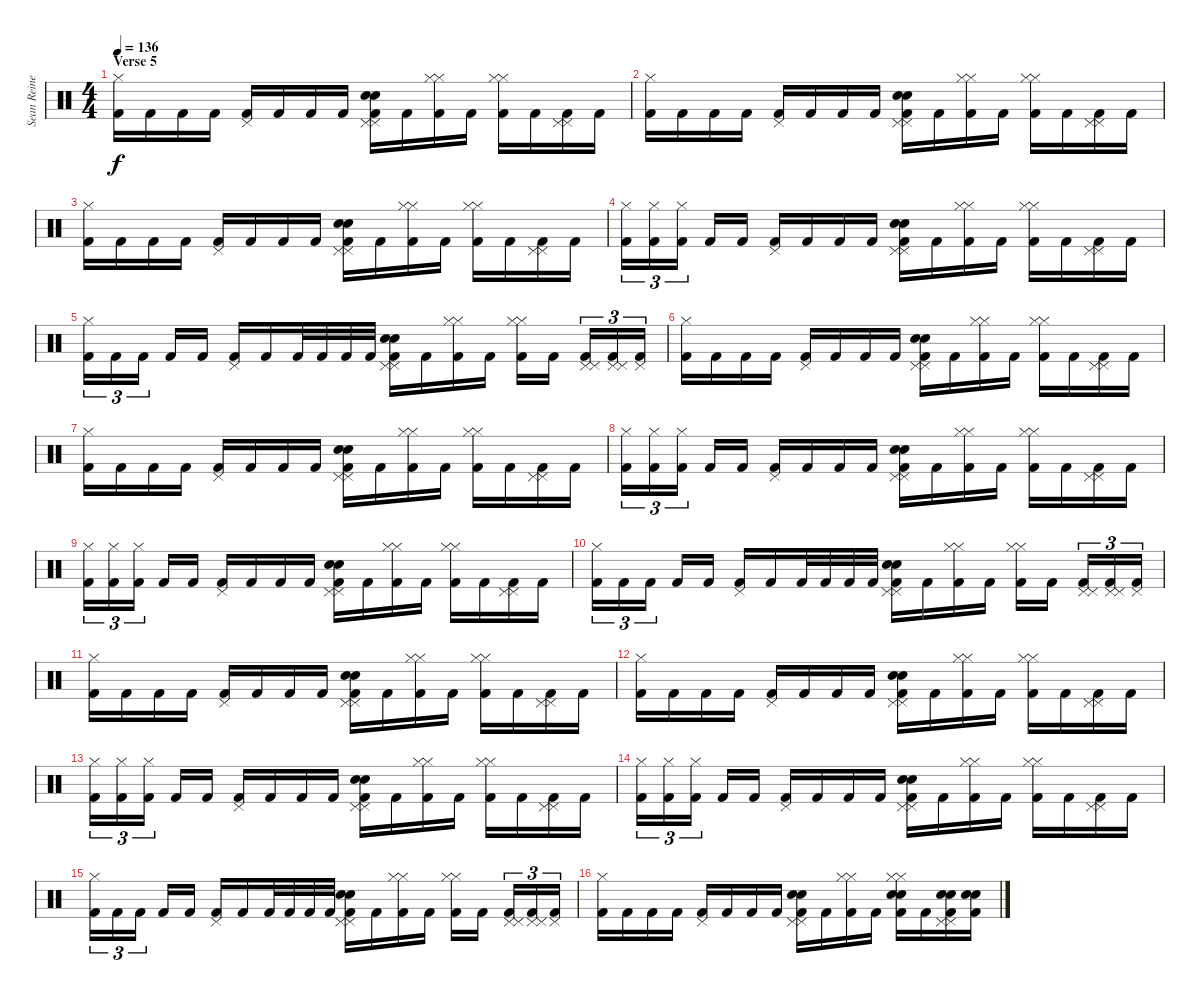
\track ("Sean Reinert" "Sean Reine") {instrument percussion}
\staff {score}
\articulation defaults
\ts (4 4)
\section ("" "Verse 5")
\tempo 136
\clef neutral
\ks c
("Hi-Hat (closed)" "Kick (hit) 2").16{dy f} "Kick (hit) 2".16 "Kick (hit) 2".16 "Kick (hit) 2".16 ("Pedal Hi-Hat (hit)" "Kick (hit) 2").16 "Kick (hit) 2".16 "Kick (hit) 2".16 "Kick (hit) 2".16 ("Electric Snare (hit)" "Snare (hit) 2" "Pedal Hi-Hat (hit)" "Pedal Hi-Hat (hit)" "Kick (hit) 2").16 "Kick (hit) 2".16 ("Hi-Hat (closed)" "Hi-Hat (closed)" "Kick (hit) 2").16 "Kick (hit) 2".16 ("Hi-Hat (closed)" "Hi-Hat (closed)" "Kick (hit) 2").16 "Kick (hit) 2".16 ("Pedal Hi-Hat (hit)" "Pedal Hi-Hat (hit)" "Kick (hit) 2").16 "Kick (hit) 2".16 |
("Hi-Hat (closed)" "Kick (hit) 2").16 "Kick (hit) 2".16 "Kick (hit) 2".16 "Kick (hit) 2".16 ("Pedal Hi-Hat (hit)" "Kick (hit) 2").16 "Kick (hit) 2".16 "Kick (hit) 2".16 "Kick (hit) 2".16 ("Electric Snare (hit)" "Snare (hit) 2" "Pedal Hi-Hat (hit)" "Pedal Hi-Hat (hit)" "Kick (hit) 2").16 "Kick (hit) 2".16 ("Hi-Hat (closed)" "Hi-Hat (closed)" "Kick (hit) 2").16 "Kick (hit) 2".16 ("Hi-Hat (closed)" "Hi-Hat (closed)" "Kick (hit) 2").16 "Kick (hit) 2".16 ("Pedal Hi-Hat (hit)" "Pedal Hi-Hat (hit)" "Kick (hit) 2").16 "Kick (hit) 2".16 |
("Hi-Hat (closed)" "Kick (hit) 2").16 "Kick (hit) 2".16 "Kick (hit) 2".16 "Kick (hit) 2".16 ("Pedal Hi-Hat (hit)" "Kick (hit) 2").16 "Kick (hit) 2".16 "Kick (hit) 2".16 "Kick (hit) 2".16 ("Electric Snare (hit)" "Snare (hit) 2" "Pedal Hi-Hat (hit)" "Pedal Hi-Hat (hit)" "Kick (hit) 2").16 "Kick (hit) 2".16 ("Hi-Hat (closed)" "Hi-Hat (closed)" "Kick (hit) 2").16 "Kick (hit) 2".16 ("Hi-Hat (closed)" "Hi-Hat (closed)" "Kick (hit) 2").16 "Kick (hit) 2".16 ("Pedal Hi-Hat (hit)" "Pedal Hi-Hat (hit)" "Kick (hit) 2").16 "Kick (hit) 2".16 |
("Hi-Hat (closed)" "Kick (hit) 2").16{tu (3 2)} ("Hi-Hat (closed)" "Kick (hit) 2").16{tu (3 2)} ("Hi-Hat (closed)" "Kick (hit) 2").16{tu (3 2)} "Kick (hit) 2".16 "Kick (hit) 2".16 ("Pedal Hi-Hat (hit)" "Kick (hit) 2").16 "Kick (hit) 2".16 "Kick (hit) 2".16 "Kick (hit) 2".16 ("Electric Snare (hit)" "Snare (hit) 2" "Pedal Hi-Hat (hit)" "Pedal Hi-Hat (hit)" "Kick (hit) 2").16 "Kick (hit) 2".16 ("Hi-Hat (closed)" "Hi-Hat (closed)" "Kick (hit) 2").16 "Kick (hit) 2".16 ("Hi-Hat (closed)" "Hi-Hat (closed)" "Kick (hit) 2").16 "Kick (hit) 2".16 ("Pedal Hi-Hat (hit)" "Pedal Hi-Hat (hit)" "Kick (hit) 2").16 "Kick (hit) 2".16 |
("Hi-Hat (closed)" "Kick (hit) 2").16{tu (3 2)} "Kick (hit) 2".16{tu (3 2)} "Kick (hit) 2".16{tu (3 2)} "Kick (hit) 2".16 "Kick (hit) 2".16 ("Pedal Hi-Hat (hit)" "Kick (hit) 2").16 "Kick (hit) 2".16 "Kick (hit) 2".32 "Kick (hit) 2".32 "Kick (hit) 2".32 "Kick (hit) 2".32 ("Electric Snare (hit)" "Snare (hit) 2" "Pedal Hi-Hat (hit)" "Pedal Hi-Hat (hit)" "Kick (hit) 2").16 "Kick (hit) 2".16 ("Hi-Hat (closed)" "Hi-Hat (closed)" "Kick (hit) 2").16 "Kick (hit) 2".16 ("Hi-Hat (closed)" "Hi-Hat (closed)" "Kick (hit) 2").16 "Kick (hit) 2".16 ("Pedal Hi-Hat (hit)" "Pedal Hi-Hat (hit)" "Kick (hit) 2").16{tu (3 2)} ("Pedal Hi-Hat (hit)" "Pedal Hi-Hat (hit)" "Kick (hit) 2").16{tu (3 2)} ("Pedal Hi-Hat (hit)" "Kick (hit) 2").16{tu (3 2)} |
("Hi-Hat (closed)" "Kick (hit) 2").16 "Kick (hit) 2".16 "Kick (hit) 2".16 "Kick (hit) 2".16 ("Pedal Hi-Hat (hit)" "Kick (hit) 2").16 "Kick (hit) 2".16 "Kick (hit) 2".16 "Kick (hit) 2".16 ("Electric Snare (hit)" "Snare (hit) 2" "Pedal Hi-Hat (hit)" "Pedal Hi-Hat (hit)" "Kick (hit) 2").16 "Kick (hit) 2".16 ("Hi-Hat (closed)" "Hi-Hat (closed)" "Kick (hit) 2").16 "Kick (hit) 2".16 ("Hi-Hat (closed)" "Hi-Hat (closed)" "Kick (hit) 2").16 "Kick (hit) 2".16 ("Pedal Hi-Hat (hit)" "Pedal Hi-Hat (hit)" "Kick (hit) 2").16 "Kick (hit) 2".16 |
("Hi-Hat (closed)" "Kick (hit) 2").16 "Kick (hit) 2".16 "Kick (hit) 2".16 "Kick (hit) 2".16 ("Pedal Hi-Hat (hit)" "Kick (hit) 2").16 "Kick (hit) 2".16 "Kick (hit) 2".16 "Kick (hit) 2".16 ("Electric Snare (hit)" "Snare (hit) 2" "Pedal Hi-Hat (hit)" "Pedal Hi-Hat (hit)" "Kick (hit) 2").16 "Kick (hit) 2".16 ("Hi-Hat (closed)" "Hi-Hat (closed)" "Kick (hit) 2").16 "Kick (hit) 2".16 ("Hi-Hat (closed)" "Hi-Hat (closed)" "Kick (hit) 2").16 "Kick (hit) 2".16 ("Pedal Hi-Hat (hit)" "Pedal Hi-Hat (hit)" "Kick (hit) 2").16 "Kick (hit) 2".16 |
("Hi-Hat (closed)" "Kick (hit) 2").16{tu (3 2)} ("Hi-Hat (closed)" "Kick (hit) 2").16{tu (3 2)} ("Hi-Hat (closed)" "Kick (hit) 2").16{tu (3 2)} "Kick (hit) 2".16 "Kick (hit) 2".16 ("Pedal Hi-Hat (hit)" "Kick (hit) 2").16 "Kick (hit) 2".16 "Kick (hit) 2".16 "Kick (hit) 2".16 ("Electric Snare (hit)" "Snare (hit) 2" "Pedal Hi-Hat (hit)" "Pedal Hi-Hat (hit)" "Kick (hit) 2").16 "Kick (hit) 2".16 ("Hi-Hat (closed)" "Hi-Hat (closed)" "Kick (hit) 2").16 "Kick (hit) 2".16 ("Hi-Hat (closed)" "Hi-Hat (closed)" "Kick (hit) 2").16 "Kick (hit) 2".16 ("Pedal Hi-Hat (hit)" "Pedal Hi-Hat (hit)" "Kick (hit) 2").16 "Kick (hit) 2".16 |
("Hi-Hat (closed)" "Kick (hit) 2").16{tu (3 2)} ("Hi-Hat (closed)" "Kick (hit) 2").16{tu (3 2)} ("Hi-Hat (closed)" "Kick (hit) 2").16{tu (3 2)} "Kick (hit) 2".16 "Kick (hit) 2".16 ("Pedal Hi-Hat (hit)" "Kick (hit) 2").16 "Kick (hit) 2".16 "Kick (hit) 2".16 "Kick (hit) 2".16 ("Electric Snare (hit)" "Snare (hit) 2" "Pedal Hi-Hat (hit)" "Pedal Hi-Hat (hit)" "Kick (hit) 2").16 "Kick (hit) 2".16 ("Hi-Hat (closed)" "Hi-Hat (closed)" "Kick (hit) 2").16 "Kick (hit) 2".16 ("Hi-Hat (closed)" "Hi-Hat (closed)" "Kick (hit) 2").16 "Kick (hit) 2".16 ("Pedal Hi-Hat (hit)" "Pedal Hi-Hat (hit)" "Kick (hit) 2").16 "Kick (hit) 2".16 |
("Hi-Hat (closed)" "Kick (hit) 2").16{tu (3 2)} "Kick (hit) 2".16{tu (3 2)} "Kick (hit) 2".16{tu (3 2)} "Kick (hit) 2".16 "Kick (hit) 2".16 ("Pedal Hi-Hat (hit)" "Kick (hit) 2").16 "Kick (hit) 2".16 "Kick (hit) 2".32 "Kick (hit) 2".32 "Kick (hit) 2".32 "Kick (hit) 2".32 ("Electric Snare (hit)" "Snare (hit) 2" "Pedal Hi-Hat (hit)" "Pedal Hi-Hat (hit)" "Kick (hit) 2").16 "Kick (hit) 2".16 ("Hi-Hat (closed)" "Hi-Hat (closed)" "Kick (hit) 2").16 "Kick (hit) 2".16 ("Hi-Hat (closed)" "Hi-Hat (closed)" "Kick (hit) 2").16 "Kick (hit) 2".16 ("Pedal Hi-Hat (hit)" "Pedal Hi-Hat (hit)" "Kick (hit) 2").16{tu (3 2)} ("Pedal Hi-Hat (hit)" "Pedal Hi-Hat (hit)" "Kick (hit) 2").16{tu (3 2)} ("Pedal Hi-Hat (hit)" "Kick (hit) 2").16{tu (3 2)} |
("Hi-Hat (closed)" "Kick (hit) 2").16 "Kick (hit) 2".16 "Kick (hit) 2".16 "Kick (hit) 2".16 ("Pedal Hi-Hat (hit)" "Kick (hit) 2").16 "Kick (hit) 2".16 "Kick (hit) 2".16 "Kick (hit) 2".16 ("Electric Snare (hit)" "Snare (hit) 2" "Pedal Hi-Hat (hit)" "Pedal Hi-Hat (hit)" "Kick (hit) 2").16 "Kick (hit) 2".16 ("Hi-Hat (closed)" "Hi-Hat (closed)" "Kick (hit) 2").16 "Kick (hit) 2".16 ("Hi-Hat (closed)" "Hi-Hat (closed)" "Kick (hit) 2").16 "Kick (hit) 2".16 ("Pedal Hi-Hat (hit)" "Pedal Hi-Hat (hit)" "Kick (hit) 2").16 "Kick (hit) 2".16 |
("Hi-Hat (closed)" "Kick (hit) 2").16 "Kick (hit) 2".16 "Kick (hit) 2".16 "Kick (hit) 2".16 ("Pedal Hi-Hat (hit)" "Kick (hit) 2").16 "Kick (hit) 2".16 "Kick (hit) 2".16 "Kick (hit) 2".16 ("Electric Snare (hit)" "Snare (hit) 2" "Pedal Hi-Hat (hit)" "Pedal Hi-Hat (hit)" "Kick (hit) 2").16 "Kick (hit) 2".16 ("Hi-Hat (closed)" "Hi-Hat (closed)" "Kick (hit) 2").16 "Kick (hit) 2".16 ("Hi-Hat (closed)" "Hi-Hat (closed)" "Kick (hit) 2").16 "Kick (hit) 2".16 ("Pedal Hi-Hat (hit)" "Pedal Hi-Hat (hit)" "Kick (hit) 2").16 "Kick (hit) 2".16 |
("Hi-Hat (closed)" "Kick (hit) 2").16{tu (3 2)} ("Hi-Hat (closed)" "Kick (hit) 2").16{tu (3 2)} ("Hi-Hat (closed)" "Kick (hit) 2").16{tu (3 2)} "Kick (hit) 2".16 "Kick (hit) 2".16 ("Pedal Hi-Hat (hit)" "Kick (hit) 2").16 "Kick (hit) 2".16 "Kick (hit) 2".16 "Kick (hit) 2".16 ("Electric Snare (hit)" "Snare (hit) 2" "Pedal Hi-Hat (hit)" "Pedal Hi-Hat (hit)" "Kick (hit) 2").16 "Kick (hit) 2".16 ("Hi-Hat (closed)" "Hi-Hat (closed)" "Kick (hit) 2").16 "Kick (hit) 2".16 ("Hi-Hat (closed)" "Hi-Hat (closed)" "Kick (hit) 2").16 "Kick (hit) 2".16 ("Pedal Hi-Hat (hit)" "Pedal Hi-Hat (hit)" "Kick (hit) 2").16 "Kick (hit) 2".16 |
("Hi-Hat (closed)" "Kick (hit) 2").16{tu (3 2)} ("Hi-Hat (closed)" "Kick (hit) 2").16{tu (3 2)} ("Hi-Hat (closed)" "Kick (hit) 2").16{tu (3 2)} "Kick (hit) 2".16 "Kick (hit) 2".16 ("Pedal Hi-Hat (hit)" "Kick (hit) 2").16 "Kick (hit) 2".16 "Kick (hit) 2".16 "Kick (hit) 2".16 ("Electric Snare (hit)" "Snare (hit) 2" "Pedal Hi-Hat (hit)" "Pedal Hi-Hat (hit)" "Kick (hit) 2").16 "Kick (hit) 2".16 ("Hi-Hat (closed)" "Hi-Hat (closed)" "Kick (hit) 2").16 "Kick (hit) 2".16 ("Hi-Hat (closed)" "Hi-Hat (closed)" "Kick (hit) 2").16 "Kick (hit) 2".16 ("Pedal Hi-Hat (hit)" "Pedal Hi-Hat (hit)" "Kick (hit) 2").16 "Kick (hit) 2".16 |
("Hi-Hat (closed)" "Kick (hit) 2").16{tu (3 2)} "Kick (hit) 2".16{tu (3 2)} "Kick (hit) 2".16{tu (3 2)} "Kick (hit) 2".16 "Kick (hit) 2".16 ("Pedal Hi-Hat (hit)" "Kick (hit) 2").16 "Kick (hit) 2".16 "Kick (hit) 2".32 "Kick (hit) 2".32 "Kick (hit) 2".32 "Kick (hit) 2".32 ("Electric Snare (hit)" "Snare (hit) 2" "Pedal Hi-Hat (hit)" "Pedal Hi-Hat (hit)" "Kick (hit) 2").16 "Kick (hit) 2".16 ("Hi-Hat (closed)" "Hi-Hat (closed)" "Kick (hit) 2").16 "Kick (hit) 2".16 ("Hi-Hat (closed)" "Hi-Hat (closed)" "Kick (hit) 2").16 "Kick (hit) 2".16 ("Pedal Hi-Hat (hit)" "Pedal Hi-Hat (hit)" "Kick (hit) 2").16{tu (3 2)} ("Pedal Hi-Hat (hit)" "Pedal Hi-Hat (hit)" "Kick (hit) 2").16{tu (3 2)} ("Pedal Hi-Hat (hit)" "Kick (hit) 2").16{tu (3 2)} |
("Hi-Hat (closed)" "Kick (hit) 2").16 "Kick (hit) 2".16 "Kick (hit) 2".16 "Kick (hit) 2".16 ("Pedal Hi-Hat (hit)" "Kick (hit) 2").16 "Kick (hit) 2".16 "Kick (hit) 2".16 "Kick (hit) 2".16 ("Electric Snare (hit)" "Snare (hit) 2" "Pedal Hi-Hat (hit)" "Pedal Hi-Hat (hit)" "Kick (hit) 2").16 "Kick (hit) 2".16 ("Hi-Hat (closed)" "Hi-Hat (closed)" "Kick (hit) 2").16 "Kick (hit) 2".16 ("Hi-Hat (closed)" "Hi-Hat (closed)" "Snare (hit) 2" "Electric Snare (hit)" "Kick (hit) 2").16 "Kick (hit) 2".16 ("Electric Snare (hit)" "Snare (hit) 2" "Pedal Hi-Hat (hit)" "Pedal Hi-Hat (hit)" "Kick (hit) 2").16 ("Snare (hit) 2" "Electric Snare (hit)" "Kick (hit) 2").16
